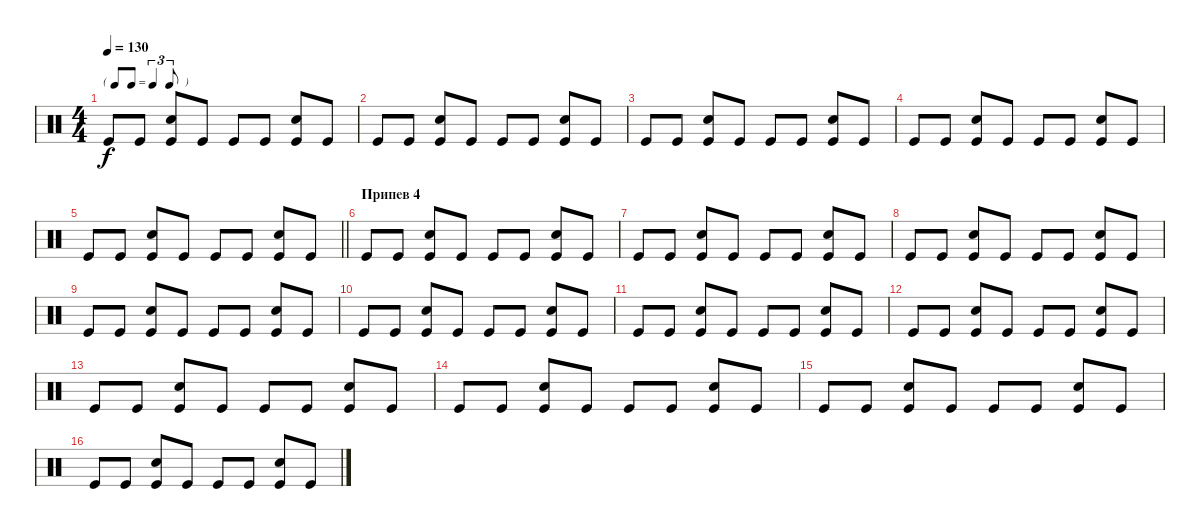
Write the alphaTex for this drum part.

\track "" {instrument percussion}
\staff {score}
\articulation defaults
\ts (4 4)
\tf triplet8th
\tempo 130
\clef neutral
\ks c "Kick (hit)".8{dy f} "Kick (hit)".8
("Snare (hit) 2" "Kick (hit)").8 "Kick (hit)".8 "Kick (hit)".8 "Kick (hit)".8 ("Snare (hit) 2" "Kick (hit)").8 "Kick (hit)".8 |
"Kick (hit)".8 "Kick (hit)".8 ("Snare (hit) 2" "Kick (hit)").8 "Kick (hit)".8 "Kick (hit)".8 "Kick (hit)".8 ("Snare (hit) 2" "Kick (hit)").8 "Kick (hit)".8 |
"Kick (hit)".8 "Kick (hit)".8 ("Snare (hit) 2" "Kick (hit)").8 "Kick (hit)".8 "Kick (hit)".8 "Kick (hit)".8 ("Snare (hit) 2" "Kick (hit)").8 "Kick (hit)".8 |
"Kick (hit)".8 "Kick (hit)".8 ("Snare (hit) 2" "Kick (hit)").8 "Kick (hit)".8 "Kick (hit)".8 "Kick (hit)".8 ("Snare (hit) 2" "Kick (hit)").8 "Kick (hit)".8 |
\barLineRight lightlight "Kick (hit)".8 "Kick (hit)".8
("Snare (hit) 2" "Kick (hit)").8 "Kick (hit)".8 "Kick (hit)".8 "Kick (hit)".8 ("Snare (hit) 2" "Kick (hit)").8 "Kick (hit)".8 |
\section ("" "Припев 4")
"Kick (hit)".8 "Kick (hit)".8 ("Snare (hit) 2" "Kick (hit)").8 "Kick (hit)".8 "Kick (hit)".8 "Kick (hit)".8 ("Snare (hit) 2" "Kick (hit)").8 "Kick (hit)".8 |
"Kick (hit)".8 "Kick (hit)".8 ("Snare (hit) 2" "Kick (hit)").8 "Kick (hit)".8 "Kick (hit)".8 "Kick (hit)".8 ("Snare (hit) 2" "Kick (hit)").8 "Kick (hit)".8 |
"Kick (hit)".8 "Kick (hit)".8 ("Snare (hit) 2" "Kick (hit)").8 "Kick (hit)".8 "Kick (hit)".8 "Kick (hit)".8 ("Snare (hit) 2" "Kick (hit)").8 "Kick (hit)".8 |
"Kick (hit)".8 "Kick (hit)".8 ("Snare (hit) 2" "Kick (hit)").8 "Kick (hit)".8 "Kick (hit)".8 "Kick (hit)".8 ("Snare (hit) 2" "Kick (hit)").8 "Kick (hit)".8 |
"Kick (hit)".8 "Kick (hit)".8 ("Snare (hit) 2" "Kick (hit)").8 "Kick (hit)".8 "Kick (hit)".8 "Kick (hit)".8 ("Snare (hit) 2" "Kick (hit)").8 "Kick (hit)".8 |
"Kick (hit)".8 "Kick (hit)".8 ("Snare (hit) 2" "Kick (hit)").8 "Kick (hit)".8 "Kick (hit)".8 "Kick (hit)".8 ("Snare (hit) 2" "Kick (hit)").8 "Kick (hit)".8 |
"Kick (hit)".8 "Kick (hit)".8 ("Snare (hit) 2" "Kick (hit)").8 "Kick (hit)".8 "Kick (hit)".8 "Kick (hit)".8 ("Snare (hit) 2" "Kick (hit)").8 "Kick (hit)".8 |
"Kick (hit)".8 "Kick (hit)".8 ("Snare (hit) 2" "Kick (hit)").8 "Kick (hit)".8 "Kick (hit)".8 "Kick (hit)".8 ("Snare (hit) 2" "Kick (hit)").8 "Kick (hit)".8 |
"Kick (hit)".8 "Kick (hit)".8 ("Snare (hit) 2" "Kick (hit)").8 "Kick (hit)".8 "Kick (hit)".8 "Kick (hit)".8 ("Snare (hit) 2" "Kick (hit)").8 "Kick (hit)".8 |
"Kick (hit)".8 "Kick (hit)".8 ("Snare (hit) 2" "Kick (hit)").8 "Kick (hit)".8 "Kick (hit)".8 "Kick (hit)".8 ("Snare (hit) 2" "Kick (hit)").8 "Kick (hit)".8 |
"Kick (hit)".8 "Kick (hit)".8 ("Snare (hit) 2" "Kick (hit)").8 "Kick (hit)".8 "Kick (hit)".8 "Kick (hit)".8 ("Snare (hit) 2" "Kick (hit)").8 "Kick (hit)".8
